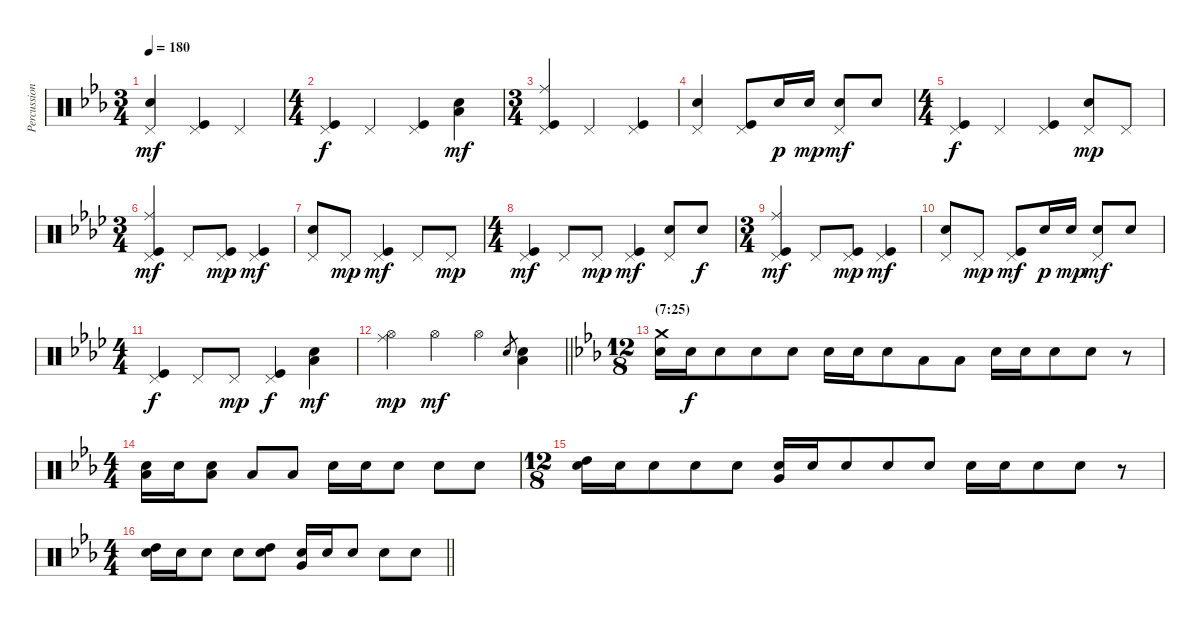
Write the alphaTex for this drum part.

\track ("Percussion" "Percussion") {instrument percussion}
\staff {score}
\articulation defaults
\ts (3 4)
\tempo 180
\clef neutral
\ks cminor
("Pedal Hi-Hat (hit)" "Snare (hit) 2").4{dy mf} ("Pedal Hi-Hat (hit)" "Kick (hit)").4 "Pedal Hi-Hat (hit)".4 |
\ts (4 4)
("Pedal Hi-Hat (hit)" "Kick (hit)").4{dy f} "Pedal Hi-Hat (hit)".4 ("Pedal Hi-Hat (hit)" "Kick (hit)").4 ("Low Floor Tom (hit)" "Snare (hit) 2").4{dy mf} |
\ts (3 4)
("Ride (middle)" "Pedal Hi-Hat (hit)" "Kick (hit)").4 "Pedal Hi-Hat (hit)".4 ("Pedal Hi-Hat (hit)" "Kick (hit)").4 |
("Pedal Hi-Hat (hit)" "Snare (hit) 2").4 ("Pedal Hi-Hat (hit)" "Kick (hit)").8 "Snare (hit) 2".16{dy p} "Snare (hit) 2".16{dy mp} ("Pedal Hi-Hat (hit)" "Snare (hit) 2").8{dy mf} "Snare (hit) 2".8 |
\ts (4 4)
("Pedal Hi-Hat (hit)" "Kick (hit)").4{dy f} "Pedal Hi-Hat (hit)".4 ("Pedal Hi-Hat (hit)" "Kick (hit)").4 ("Pedal Hi-Hat (hit)" "Snare (hit) 2").8{dy mp} "Pedal Hi-Hat (hit)".8 |
\ts (3 4)
\ks fminor
("Ride (middle)" "Pedal Hi-Hat (hit)" "Kick (hit)").4{dy mf} "Pedal Hi-Hat (hit)".8 ("Pedal Hi-Hat (hit)" "Kick (hit)").8{dy mp} ("Pedal Hi-Hat (hit)" "Kick (hit)").4{dy mf} |
("Pedal Hi-Hat (hit)" "Snare (hit) 2").8 "Pedal Hi-Hat (hit)".8{dy mp} ("Pedal Hi-Hat (hit)" "Kick (hit)").4{dy mf} "Pedal Hi-Hat (hit)".8 "Pedal Hi-Hat (hit)".8{dy mp} |
\ts (4 4)
("Pedal Hi-Hat (hit)" "Kick (hit)").4{dy mf} "Pedal Hi-Hat (hit)".8 "Pedal Hi-Hat (hit)".8{dy mp} ("Pedal Hi-Hat (hit)" "Kick (hit)").4{dy mf} ("Pedal Hi-Hat (hit)" "Snare (hit) 2").8 "Snare (hit) 2".8{dy f} |
\ts (3 4)
("Ride (middle)" "Pedal Hi-Hat (hit)" "Kick (hit)").4{dy mf} "Pedal Hi-Hat (hit)".8 ("Pedal Hi-Hat (hit)" "Kick (hit)").8{dy mp} ("Pedal Hi-Hat (hit)" "Kick (hit)").4{dy mf} |
("Pedal Hi-Hat (hit)" "Snare (hit) 2").8 "Pedal Hi-Hat (hit)".8{dy mp} ("Pedal Hi-Hat (hit)" "Kick (hit)").8{dy mf} "Snare (hit) 2".16{dy p} "Snare (hit) 2".16{dy mp} ("Pedal Hi-Hat (hit)" "Snare (hit) 2").8{dy mf} "Snare (hit) 2".8 |
\ts (4 4)
("Pedal Hi-Hat (hit)" "Kick (hit)").4{dy f} "Pedal Hi-Hat (hit)".8 "Pedal Hi-Hat (hit)".8{dy mp} ("Pedal Hi-Hat (hit)" "Kick (hit)").4{dy f} ("Low Floor Tom (hit)" "Snare (hit) 2").4{dy mf} |
\barLineRight lightlight
("Ride (middle)" "Hi-Hat (open)").4{dy mp} "Hi-Hat (open)".4{dy mf} "Hi-Hat (open)".4 "Snare (hit) 2".8{gr} ("Low Tom (hit)" "Snare (hit) 2").4 |
\ts (12 8)
\section ("" "(7:25)")
\ks cminor
("Crash medium (hit)" "Snare (hit) 2").16 "Snare (hit) 2".16{dy f} "Snare (hit) 2".8 "Snare (hit) 2".8{beam merge} "Snare (hit) 2".8{beam split} "Snare (hit) 2".16 "Snare (hit) 2".16 "Snare (hit) 2".8{beam merge} "Low Floor Tom (hit)".8 "Low Tom (hit)".8{beam split} "Snare (hit) 2".16{beam merge} "Snare (hit) 2".16{beam merge} "Snare (hit) 2".8 "Snare (hit) 2".8 r.8 |
\ts (4 4)
("Low Floor Tom (hit)" "Snare (hit) 2").16 "Snare (hit) 2".16 ("Low Floor Tom (hit)" "Snare (hit) 2").8 "Low Floor Tom (hit)".8 "Low Floor Tom (hit)".8 "Snare (hit) 2".16 "Snare (hit) 2".16 "Snare (hit) 2".8 "Snare (hit) 2".8 "Snare (hit) 2".8 |
\ts (12 8)
("High Tom (hit)" "Snare (hit) 2").16 "Snare (hit) 2".16 "Snare (hit) 2".8 "Snare (hit) 2".8{beam merge} "Snare (hit) 2".8{beam split} ("Very Low Tom (hit)" "Snare (hit) 2").16 "Snare (hit) 2".16 "Snare (hit) 2".8{beam merge} "Snare (hit) 2".8 "Snare (hit) 2".8{beam split} "Snare (hit) 2".16{beam merge} "Snare (hit) 2".16{beam merge} "Snare (hit) 2".8 "Snare (hit) 2".8 r.8 |
\ts (4 4)
\barLineRight lightlight
("High Tom (hit)" "Snare (hit) 2").16 "Snare (hit) 2".16 "Snare (hit) 2".8{beam split} "Snare (hit) 2".8 ("High Tom (hit)" "Snare (hit) 2").8 ("Very Low Tom (hit)" "Snare (hit) 2").16 "Snare (hit) 2".16 "Snare (hit) 2".8{beam split} "Snare (hit) 2".8 "Snare (hit) 2".8
